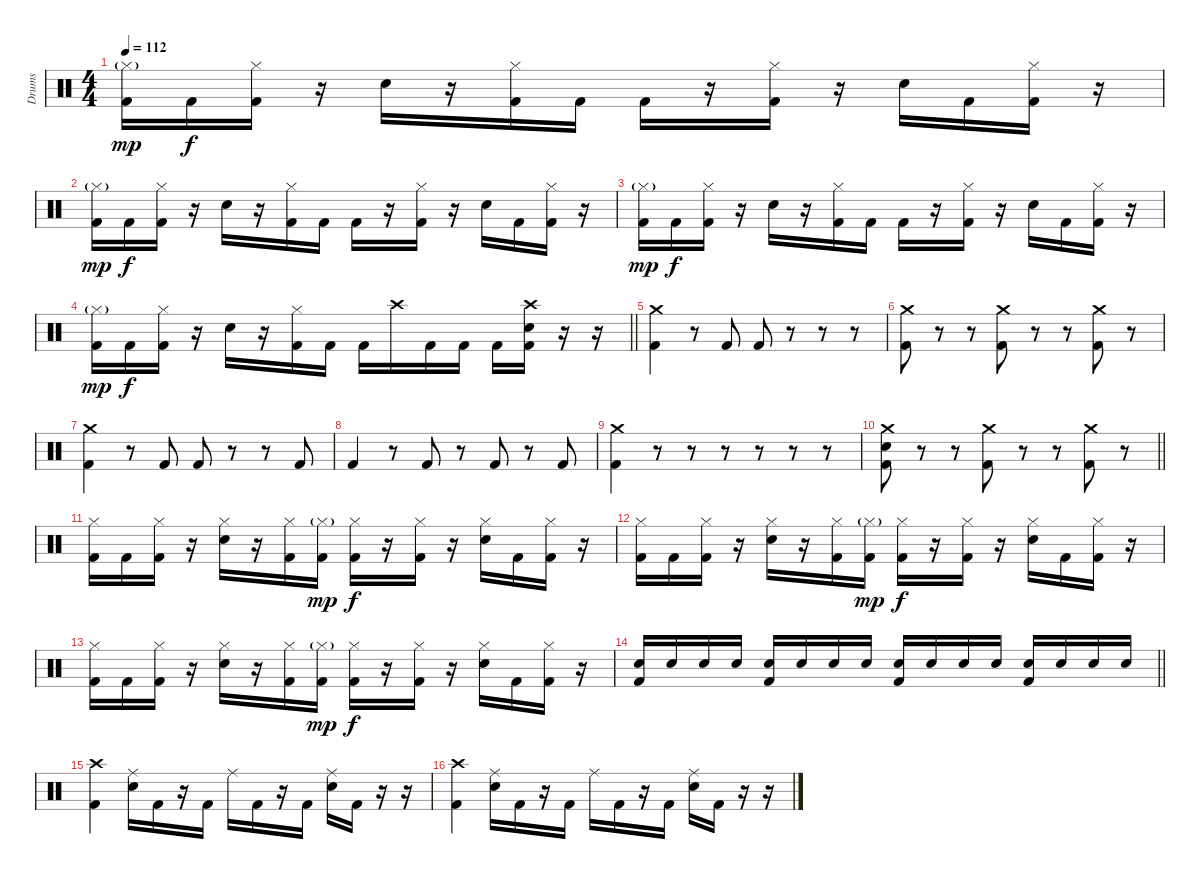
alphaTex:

\track ("Drums" "Drums") {instrument percussion}
\staff {score}
\articulation defaults
\ts (4 4)
\tempo 112
\clef neutral
\ks c
("Hi-Hat (closed)"{g} "Kick (hit) 2").16{dy mp} "Kick (hit) 2".16{dy f} ("Hi-Hat (closed)" "Kick (hit) 2").16 r.16 "Electric Snare (hit)".16 r.16 ("Hi-Hat (closed)" "Kick (hit) 2").16 "Kick (hit) 2".16 "Kick (hit) 2".16 r.16 ("Hi-Hat (closed)" "Kick (hit) 2").16 r.16 "Electric Snare (hit)".16 "Kick (hit) 2".16 ("Hi-Hat (closed)" "Kick (hit) 2").16 r.16 |
("Hi-Hat (closed)"{g} "Kick (hit) 2").16{dy mp} "Kick (hit) 2".16{dy f} ("Hi-Hat (closed)" "Kick (hit) 2").16 r.16 "Electric Snare (hit)".16 r.16 ("Hi-Hat (closed)" "Kick (hit) 2").16 "Kick (hit) 2".16 "Kick (hit) 2".16 r.16 ("Hi-Hat (closed)" "Kick (hit) 2").16 r.16 "Electric Snare (hit)".16 "Kick (hit) 2".16 ("Hi-Hat (closed)" "Kick (hit) 2").16 r.16 |
("Hi-Hat (closed)"{g} "Kick (hit) 2").16{dy mp} "Kick (hit) 2".16{dy f} ("Hi-Hat (closed)" "Kick (hit) 2").16 r.16 "Electric Snare (hit)".16 r.16 ("Hi-Hat (closed)" "Kick (hit) 2").16 "Kick (hit) 2".16 "Kick (hit) 2".16 r.16 ("Hi-Hat (closed)" "Kick (hit) 2").16 r.16 "Electric Snare (hit)".16 "Kick (hit) 2".16 ("Hi-Hat (closed)" "Kick (hit) 2").16 r.16 |
\barLineRight lightlight
("Hi-Hat (closed)"{g} "Kick (hit) 2").16{dy mp} "Kick (hit) 2".16{dy f} ("Hi-Hat (closed)" "Kick (hit) 2").16 r.16 "Electric Snare (hit)".16 r.16 ("Hi-Hat (closed)" "Kick (hit) 2").16 "Kick (hit) 2".16 "Kick (hit) 2".16 "Crash high (hit)".16 "Kick (hit) 2".16 "Kick (hit) 2".16 "Kick (hit) 2".16 ("Crash high (hit)" "Electric Snare (hit)" "Kick (hit) 2").16 r.16 r.16 |
("Crash medium (hit)" "Kick (hit) 2").4 r.8 "Kick (hit) 2".8 "Kick (hit) 2".8 r.8 r.8 r.8 |
("Crash medium (hit)" "Kick (hit) 2").8 r.8 r.8 ("Crash medium (hit)" "Kick (hit) 2").8 r.8 r.8 ("Crash medium (hit)" "Kick (hit) 2").8 r.8 |
("Crash medium (hit)" "Kick (hit) 2").4 r.8 "Kick (hit) 2".8 "Kick (hit) 2".8 r.8 r.8 "Kick (hit) 2".8 |
"Kick (hit) 2".4 r.8 "Kick (hit) 2".8 r.8 "Kick (hit) 2".8 r.8 "Kick (hit) 2".8 |
("Crash medium (hit)" "Kick (hit) 2").4 r.8 r.8 r.8 r.8 r.8 r.8 |
\barLineRight lightlight
("Crash medium (hit)" "Electric Snare (hit)" "Kick (hit) 2").8 r.8 r.8 ("Crash medium (hit)" "Kick (hit) 2").8 r.8 r.8 ("Crash medium (hit)" "Kick (hit) 2").8 r.8 |
("Hi-Hat (closed)" "Kick (hit) 2").16 "Kick (hit) 2".16 ("Hi-Hat (closed)" "Kick (hit) 2").16 r.16 ("Hi-Hat (closed)" "Electric Snare (hit)").16 r.16 ("Hi-Hat (closed)" "Kick (hit) 2").16 ("Hi-Hat (closed)"{g} "Kick (hit) 2").16{dy mp} ("Hi-Hat (closed)" "Kick (hit) 2").16{dy f} r.16 ("Hi-Hat (closed)" "Kick (hit) 2").16 r.16 ("Hi-Hat (closed)" "Electric Snare (hit)").16 "Kick (hit) 2".16 ("Hi-Hat (closed)" "Kick (hit) 2").16 r.16 |
("Hi-Hat (closed)" "Kick (hit) 2").16 "Kick (hit) 2".16 ("Hi-Hat (closed)" "Kick (hit) 2").16 r.16 ("Hi-Hat (closed)" "Electric Snare (hit)").16 r.16 ("Hi-Hat (closed)" "Kick (hit) 2").16 ("Hi-Hat (closed)"{g} "Kick (hit) 2").16{dy mp} ("Hi-Hat (closed)" "Kick (hit) 2").16{dy f} r.16 ("Hi-Hat (closed)" "Kick (hit) 2").16 r.16 ("Hi-Hat (closed)" "Electric Snare (hit)").16 "Kick (hit) 2".16 ("Hi-Hat (closed)" "Kick (hit) 2").16 r.16 |
("Hi-Hat (closed)" "Kick (hit) 2").16 "Kick (hit) 2".16 ("Hi-Hat (closed)" "Kick (hit) 2").16 r.16 ("Hi-Hat (closed)" "Electric Snare (hit)").16 r.16 ("Hi-Hat (closed)" "Kick (hit) 2").16 ("Hi-Hat (closed)"{g} "Kick (hit) 2").16{dy mp} ("Hi-Hat (closed)" "Kick (hit) 2").16{dy f} r.16 ("Hi-Hat (closed)" "Kick (hit) 2").16 r.16 ("Hi-Hat (closed)" "Electric Snare (hit)").16 "Kick (hit) 2".16 ("Hi-Hat (closed)" "Kick (hit) 2").16 r.16 |
\barLineRight lightlight
("Electric Snare (hit)" "Kick (hit) 2").16 "Electric Snare (hit)".16 "Electric Snare (hit)".16 "Electric Snare (hit)".16 ("Electric Snare (hit)" "Kick (hit) 2").16 "Electric Snare (hit)".16 "Electric Snare (hit)".16 "Electric Snare (hit)".16 ("Electric Snare (hit)" "Kick (hit) 2").16 "Electric Snare (hit)".16 "Electric Snare (hit)".16 "Electric Snare (hit)".16 ("Electric Snare (hit)" "Kick (hit) 2").16 "Electric Snare (hit)".16 "Electric Snare (hit)".16 "Electric Snare (hit)".16 |
("Crash high (hit)" "Kick (hit) 2").4 ("Ride (middle)" "Electric Snare (hit)").16 "Kick (hit) 2".16 r.16 "Kick (hit) 2".16 "Ride (middle)".16 "Kick (hit) 2".16 r.16 "Kick (hit) 2".16 ("Ride (middle)" "Electric Snare (hit)").16 "Kick (hit) 2".16 r.16 r.16 |
("Crash high (hit)" "Kick (hit) 2").4 ("Ride (middle)" "Electric Snare (hit)").16 "Kick (hit) 2".16 r.16 "Kick (hit) 2".16 "Ride (middle)".16 "Kick (hit) 2".16 r.16 "Kick (hit) 2".16 ("Ride (middle)" "Electric Snare (hit)").16 "Kick (hit) 2".16 r.16 r.16
